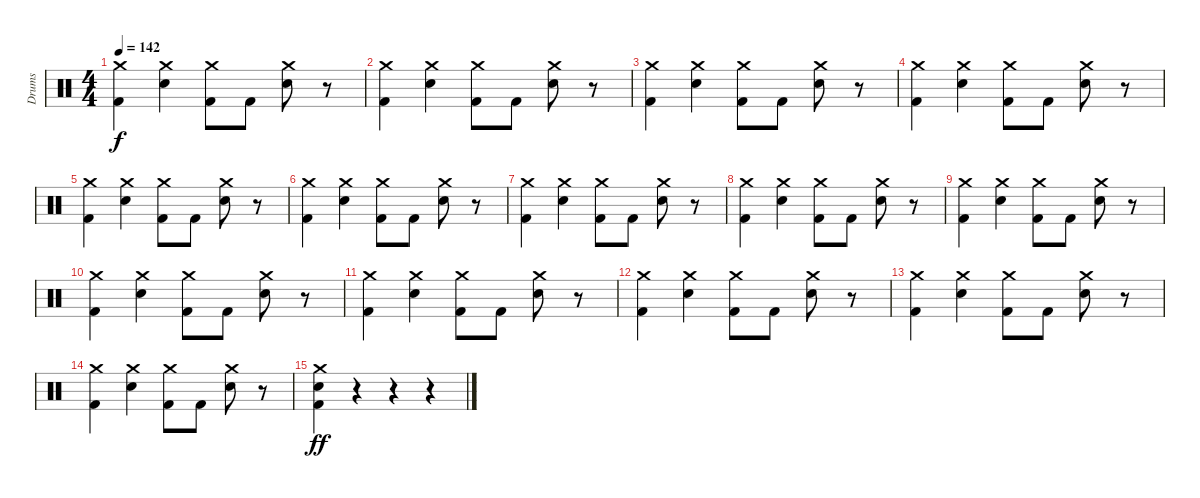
\track ("Drums" "Drums") {instrument percussion}
\staff {score}
\articulation defaults
\ts (4 4)
\tempo 142
\clef neutral
\ks c
("Crash medium (hit)" "Kick (hit) 2").4{dy f} ("Crash medium (hit)" "Snare (hit) 2").4 ("Crash medium (hit)" "Kick (hit) 2").8 "Kick (hit) 2".8 ("Crash medium (hit)" "Snare (hit) 2").8 r.8 |
("Crash medium (hit)" "Kick (hit) 2").4 ("Crash medium (hit)" "Snare (hit) 2").4 ("Crash medium (hit)" "Kick (hit) 2").8 "Kick (hit) 2".8 ("Crash medium (hit)" "Snare (hit) 2").8 r.8 |
("Crash medium (hit)" "Kick (hit) 2").4 ("Crash medium (hit)" "Snare (hit) 2").4 ("Crash medium (hit)" "Kick (hit) 2").8 "Kick (hit) 2".8 ("Crash medium (hit)" "Snare (hit) 2").8 r.8 |
("Crash medium (hit)" "Kick (hit) 2").4 ("Crash medium (hit)" "Snare (hit) 2").4 ("Crash medium (hit)" "Kick (hit) 2").8 "Kick (hit) 2".8 ("Crash medium (hit)" "Snare (hit) 2").8 r.8 |
("Crash medium (hit)" "Kick (hit) 2").4 ("Crash medium (hit)" "Snare (hit) 2").4 ("Crash medium (hit)" "Kick (hit) 2").8 "Kick (hit) 2".8 ("Crash medium (hit)" "Snare (hit) 2").8 r.8 |
("Crash medium (hit)" "Kick (hit) 2").4 ("Crash medium (hit)" "Snare (hit) 2").4 ("Crash medium (hit)" "Kick (hit) 2").8 "Kick (hit) 2".8 ("Crash medium (hit)" "Snare (hit) 2").8 r.8 |
("Crash medium (hit)" "Kick (hit) 2").4 ("Crash medium (hit)" "Snare (hit) 2").4 ("Crash medium (hit)" "Kick (hit) 2").8 "Kick (hit) 2".8 ("Crash medium (hit)" "Snare (hit) 2").8 r.8 |
("Crash medium (hit)" "Kick (hit) 2").4 ("Crash medium (hit)" "Snare (hit) 2").4 ("Crash medium (hit)" "Kick (hit) 2").8 "Kick (hit) 2".8 ("Crash medium (hit)" "Snare (hit) 2").8 r.8 |
("Crash medium (hit)" "Kick (hit) 2").4 ("Crash medium (hit)" "Snare (hit) 2").4 ("Crash medium (hit)" "Kick (hit) 2").8 "Kick (hit) 2".8 ("Crash medium (hit)" "Snare (hit) 2").8 r.8 |
("Crash medium (hit)" "Kick (hit) 2").4 ("Crash medium (hit)" "Snare (hit) 2").4 ("Crash medium (hit)" "Kick (hit) 2").8 "Kick (hit) 2".8 ("Crash medium (hit)" "Snare (hit) 2").8 r.8 |
("Crash medium (hit)" "Kick (hit) 2").4 ("Crash medium (hit)" "Snare (hit) 2").4 ("Crash medium (hit)" "Kick (hit) 2").8 "Kick (hit) 2".8 ("Crash medium (hit)" "Snare (hit) 2").8 r.8 |
("Crash medium (hit)" "Kick (hit) 2").4 ("Crash medium (hit)" "Snare (hit) 2").4 ("Crash medium (hit)" "Kick (hit) 2").8 "Kick (hit) 2".8 ("Crash medium (hit)" "Snare (hit) 2").8 r.8 |
("Crash medium (hit)" "Kick (hit) 2").4 ("Crash medium (hit)" "Snare (hit) 2").4 ("Crash medium (hit)" "Kick (hit) 2").8 "Kick (hit) 2".8 ("Crash medium (hit)" "Snare (hit) 2").8 r.8 |
("Crash medium (hit)" "Kick (hit) 2").4 ("Crash medium (hit)" "Snare (hit) 2").4 ("Crash medium (hit)" "Kick (hit) 2").8 "Kick (hit) 2".8 ("Crash medium (hit)" "Snare (hit) 2").8 r.8 |
("Crash medium (hit)" "Snare (hit) 2" "Kick (hit) 2").4{dy ff} r.4 r.4 r.4
